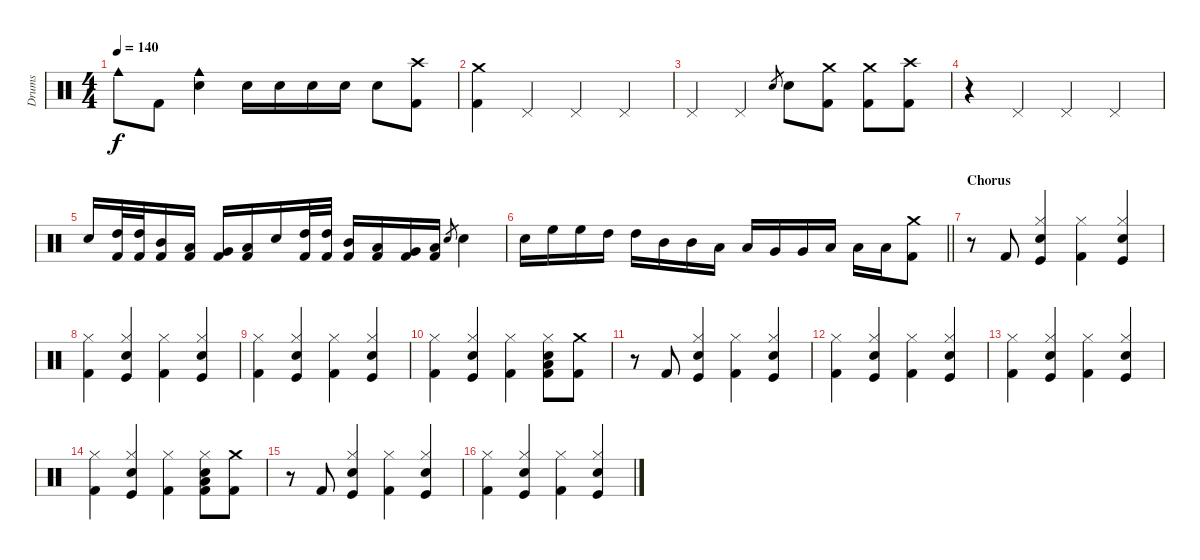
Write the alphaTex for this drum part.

\track ("Drums" "Drums") {instrument percussion}
\staff {score}
\articulation defaults
\ts (4 4)
\tempo 140
\clef neutral
\ks c "Cowbell medium (hit)".8{dy f} "Kick (hit) 2".8
("Electric Snare (hit)" "Cowbell medium (hit)").4 "Electric Snare (hit)".16 "Electric Snare (hit)".16 "Electric Snare (hit)".16 "Electric Snare (hit)".16 "Electric Snare (hit)".8 ("Crash high (hit)" "Kick (hit) 2").8 |
("Crash medium (hit)" "Kick (hit) 2").4 "Pedal Hi-Hat (hit)".4 "Pedal Hi-Hat (hit)".4 "Pedal Hi-Hat (hit)".4 |
"Pedal Hi-Hat (hit)".4 "Pedal Hi-Hat (hit)".4 "Electric Snare (hit)".8{gr} "Electric Snare (hit)".8 ("Crash medium (hit)" "Kick (hit) 2").8 ("Crash medium (hit)" "Kick (hit) 2").8 ("Crash high (hit)" "Kick (hit) 2").8 |
r.4 "Pedal Hi-Hat (hit)".4 "Pedal Hi-Hat (hit)".4 "Pedal Hi-Hat (hit)".4 |
"Electric Snare (hit)".16 ("High Tom (hit)" "Kick (hit) 2").32 ("High Tom (hit)" "Kick (hit) 2").32 ("Mid Tom (hit)" "Kick (hit) 2").16 ("Low Tom (hit)" "Kick (hit) 2").16 ("Very Low Tom (hit)" "Kick (hit) 2").16 ("Low Floor Tom (hit)" "Kick (hit) 2").16 "Electric Snare (hit)".16 ("High Tom (hit)" "Kick (hit) 2").32 ("High Tom (hit)" "Kick (hit) 2").32 ("Mid Tom (hit)" "Kick (hit) 2").16 ("Low Tom (hit)" "Kick (hit) 2").16 ("Very Low Tom (hit)" "Kick (hit) 2").16 ("Low Floor Tom (hit)" "Kick (hit) 2").16 "Electric Snare (hit)".8{gr} "Electric Snare (hit)".4 |
\barLineRight lightlight "Electric Snare (hit)".16 "High Floor Tom (hit)".16 "High Floor Tom (hit)".16 "High Tom (hit)".16 "High Tom (hit)".16 "Mid Tom (hit)".16 "Mid Tom (hit)".16 "Low Tom (hit)".16 "Low Tom (hit)".16 "Very Low Tom (hit)".16 "Very Low Tom (hit)".16 "Low Floor Tom (hit)".16 "Low Floor Tom (hit)".16 "Low Floor Tom (hit)".16
("Crash medium (hit)" "Kick (hit) 2").8 |
\section ("" "Chorus")
r.8 "Kick (hit) 2".8 ("Hi-Hat (closed)" "Electric Snare (hit)" "Kick (hit)").4 ("Hi-Hat (closed)" "Kick (hit) 2").4 ("Hi-Hat (closed)" "Electric Snare (hit)" "Kick (hit)").4 |
("Hi-Hat (closed)" "Kick (hit) 2").4 ("Hi-Hat (closed)" "Electric Snare (hit)" "Kick (hit)").4 ("Hi-Hat (closed)" "Kick (hit) 2").4 ("Hi-Hat (closed)" "Electric Snare (hit)" "Kick (hit)").4 |
("Hi-Hat (closed)" "Kick (hit) 2").4 ("Hi-Hat (closed)" "Electric Snare (hit)" "Kick (hit)").4 ("Hi-Hat (closed)" "Kick (hit) 2").4 ("Hi-Hat (closed)" "Electric Snare (hit)" "Kick (hit)").4 |
("Hi-Hat (closed)" "Kick (hit) 2").4 ("Hi-Hat (closed)" "Electric Snare (hit)" "Kick (hit)").4 ("Hi-Hat (closed)" "Kick (hit) 2").4 ("Hi-Hat (closed)" "Kick (hit) 2" "Low Floor Tom (hit)" "Electric Snare (hit)").8 ("Crash medium (hit)" "Kick (hit) 2").8 |
r.8 "Kick (hit) 2".8 ("Hi-Hat (closed)" "Electric Snare (hit)" "Kick (hit)").4 ("Hi-Hat (closed)" "Kick (hit) 2").4 ("Hi-Hat (closed)" "Electric Snare (hit)" "Kick (hit)").4 |
("Hi-Hat (closed)" "Kick (hit) 2").4 ("Hi-Hat (closed)" "Electric Snare (hit)" "Kick (hit)").4 ("Hi-Hat (closed)" "Kick (hit) 2").4 ("Hi-Hat (closed)" "Electric Snare (hit)" "Kick (hit)").4 |
("Hi-Hat (closed)" "Kick (hit) 2").4 ("Hi-Hat (closed)" "Electric Snare (hit)" "Kick (hit)").4 ("Hi-Hat (closed)" "Kick (hit) 2").4 ("Hi-Hat (closed)" "Electric Snare (hit)" "Kick (hit)").4 |
("Hi-Hat (closed)" "Kick (hit) 2").4 ("Hi-Hat (closed)" "Electric Snare (hit)" "Kick (hit)").4 ("Hi-Hat (closed)" "Kick (hit) 2").4 ("Hi-Hat (closed)" "Kick (hit) 2" "Low Floor Tom (hit)" "Electric Snare (hit)").8 ("Crash medium (hit)" "Kick (hit) 2").8 |
r.8 "Kick (hit) 2".8 ("Hi-Hat (closed)" "Electric Snare (hit)" "Kick (hit)").4 ("Hi-Hat (closed)" "Kick (hit) 2").4 ("Hi-Hat (closed)" "Electric Snare (hit)" "Kick (hit)").4 |
("Hi-Hat (closed)" "Kick (hit) 2").4 ("Hi-Hat (closed)" "Electric Snare (hit)" "Kick (hit)").4 ("Hi-Hat (closed)" "Kick (hit) 2").4 ("Hi-Hat (closed)" "Electric Snare (hit)" "Kick (hit)").4
